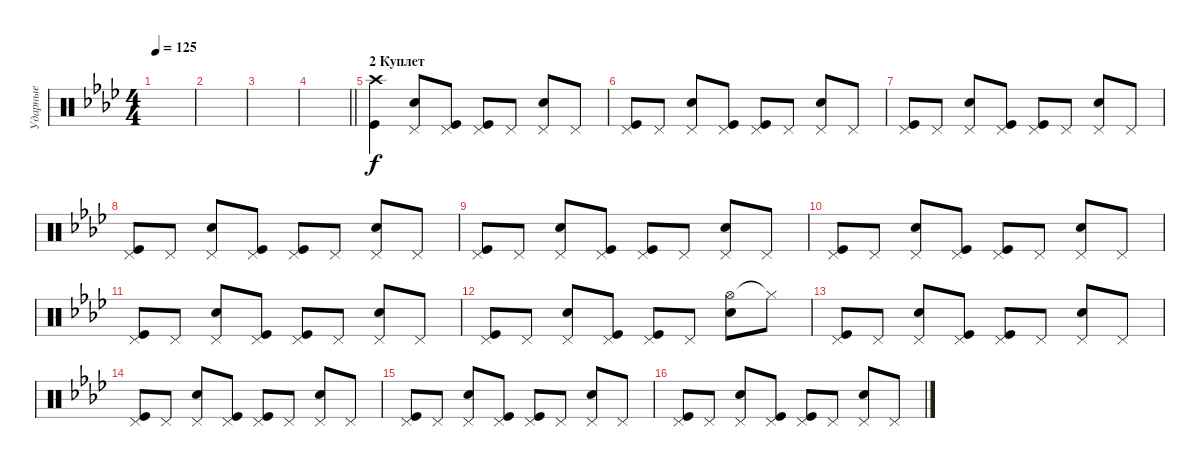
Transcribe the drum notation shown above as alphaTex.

\track ("Ударные" "Ударные") {solo instrument percussion}
\staff {score}
\articulation defaults
\ts (4 4)
\tempo 125
\clef neutral
\ks fminor
|
|
|
\barLineRight lightlight
|
\section ("" "2 Куплет")
("Crash high (hit)" "Kick (hit)").4 ("Pedal Hi-Hat (hit)" "Electric Snare (hit)").8 ("Pedal Hi-Hat (hit)" "Kick (hit)").8 ("Pedal Hi-Hat (hit)" "Kick (hit)").8 "Pedal Hi-Hat (hit)".8 ("Pedal Hi-Hat (hit)" "Electric Snare (hit)").8 "Pedal Hi-Hat (hit)".8 |
("Pedal Hi-Hat (hit)" "Kick (hit)").8 "Pedal Hi-Hat (hit)".8 ("Pedal Hi-Hat (hit)" "Electric Snare (hit)").8 ("Pedal Hi-Hat (hit)" "Kick (hit)").8 ("Pedal Hi-Hat (hit)" "Kick (hit)").8 "Pedal Hi-Hat (hit)".8 ("Pedal Hi-Hat (hit)" "Electric Snare (hit)").8 "Pedal Hi-Hat (hit)".8 |
("Pedal Hi-Hat (hit)" "Kick (hit)").8 "Pedal Hi-Hat (hit)".8 ("Pedal Hi-Hat (hit)" "Electric Snare (hit)").8 ("Pedal Hi-Hat (hit)" "Kick (hit)").8 ("Pedal Hi-Hat (hit)" "Kick (hit)").8 "Pedal Hi-Hat (hit)".8 ("Pedal Hi-Hat (hit)" "Electric Snare (hit)").8 "Pedal Hi-Hat (hit)".8 |
("Pedal Hi-Hat (hit)" "Kick (hit)").8 "Pedal Hi-Hat (hit)".8 ("Pedal Hi-Hat (hit)" "Electric Snare (hit)").8 ("Pedal Hi-Hat (hit)" "Kick (hit)").8 ("Pedal Hi-Hat (hit)" "Kick (hit)").8 "Pedal Hi-Hat (hit)".8 ("Pedal Hi-Hat (hit)" "Electric Snare (hit)").8 "Pedal Hi-Hat (hit)".8 |
("Pedal Hi-Hat (hit)" "Kick (hit)").8 "Pedal Hi-Hat (hit)".8 ("Pedal Hi-Hat (hit)" "Electric Snare (hit)").8 ("Pedal Hi-Hat (hit)" "Kick (hit)").8 ("Pedal Hi-Hat (hit)" "Kick (hit)").8 "Pedal Hi-Hat (hit)".8 ("Pedal Hi-Hat (hit)" "Electric Snare (hit)").8 "Pedal Hi-Hat (hit)".8 |
("Pedal Hi-Hat (hit)" "Kick (hit)").8 "Pedal Hi-Hat (hit)".8 ("Pedal Hi-Hat (hit)" "Electric Snare (hit)").8 ("Pedal Hi-Hat (hit)" "Kick (hit)").8 ("Pedal Hi-Hat (hit)" "Kick (hit)").8 "Pedal Hi-Hat (hit)".8 ("Pedal Hi-Hat (hit)" "Electric Snare (hit)").8 "Pedal Hi-Hat (hit)".8 |
("Pedal Hi-Hat (hit)" "Kick (hit)").8 "Pedal Hi-Hat (hit)".8 ("Pedal Hi-Hat (hit)" "Electric Snare (hit)").8 ("Pedal Hi-Hat (hit)" "Kick (hit)").8 ("Pedal Hi-Hat (hit)" "Kick (hit)").8 "Pedal Hi-Hat (hit)".8 ("Pedal Hi-Hat (hit)" "Electric Snare (hit)").8 "Pedal Hi-Hat (hit)".8 |
("Pedal Hi-Hat (hit)" "Kick (hit)").8 "Pedal Hi-Hat (hit)".8 ("Pedal Hi-Hat (hit)" "Electric Snare (hit)").8 ("Pedal Hi-Hat (hit)" "Kick (hit)").8 ("Pedal Hi-Hat (hit)" "Kick (hit)").8 "Pedal Hi-Hat (hit)".8 ("Hi-Hat (open)" "Electric Snare (hit)").8 "Hi-Hat (closed)"{t}.8 |
("Pedal Hi-Hat (hit)" "Kick (hit)").8 "Pedal Hi-Hat (hit)".8 ("Pedal Hi-Hat (hit)" "Electric Snare (hit)").8 ("Pedal Hi-Hat (hit)" "Kick (hit)").8 ("Pedal Hi-Hat (hit)" "Kick (hit)").8 "Pedal Hi-Hat (hit)".8 ("Pedal Hi-Hat (hit)" "Electric Snare (hit)").8 "Pedal Hi-Hat (hit)".8 |
("Pedal Hi-Hat (hit)" "Kick (hit)").8 "Pedal Hi-Hat (hit)".8 ("Pedal Hi-Hat (hit)" "Electric Snare (hit)").8 ("Pedal Hi-Hat (hit)" "Kick (hit)").8 ("Pedal Hi-Hat (hit)" "Kick (hit)").8 "Pedal Hi-Hat (hit)".8 ("Pedal Hi-Hat (hit)" "Electric Snare (hit)").8 "Pedal Hi-Hat (hit)".8 |
("Pedal Hi-Hat (hit)" "Kick (hit)").8 "Pedal Hi-Hat (hit)".8 ("Pedal Hi-Hat (hit)" "Electric Snare (hit)").8 ("Pedal Hi-Hat (hit)" "Kick (hit)").8 ("Pedal Hi-Hat (hit)" "Kick (hit)").8 "Pedal Hi-Hat (hit)".8 ("Pedal Hi-Hat (hit)" "Electric Snare (hit)").8 "Pedal Hi-Hat (hit)".8 |
("Pedal Hi-Hat (hit)" "Kick (hit)").8 "Pedal Hi-Hat (hit)".8 ("Pedal Hi-Hat (hit)" "Electric Snare (hit)").8 ("Pedal Hi-Hat (hit)" "Kick (hit)").8 ("Pedal Hi-Hat (hit)" "Kick (hit)").8 "Pedal Hi-Hat (hit)".8 ("Pedal Hi-Hat (hit)" "Electric Snare (hit)").8 "Pedal Hi-Hat (hit)".8
